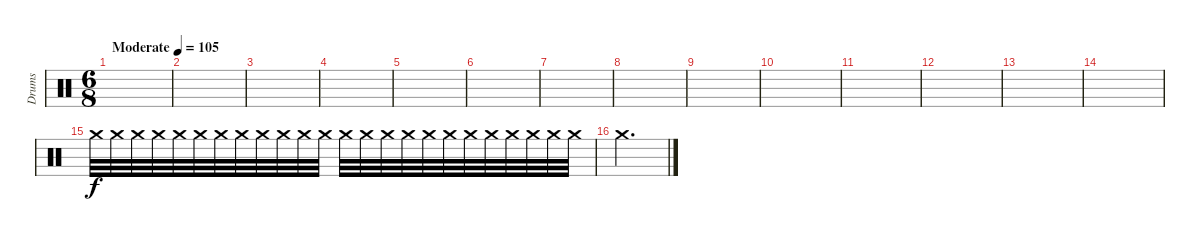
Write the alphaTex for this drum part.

\track ("Drums" "Drums") {instrument percussion}
\staff {score}
\articulation defaults
\ts (6 8)
\tempo (105 "Moderate")
\clef neutral
\ks c
|
|
|
|
|
|
|
|
|
|
|
|
|
|
"Crash medium (hit)".32{volume 13} "Crash medium (hit)".32 "Crash medium (hit)".32 "Crash medium (hit)".32 "Crash medium (hit)".32 "Crash medium (hit)".32 "Crash medium (hit)".32 "Crash medium (hit)".32 "Crash medium (hit)".32 "Crash medium (hit)".32 "Crash medium (hit)".32 "Crash medium (hit)".32 "Crash medium (hit)".32 "Crash medium (hit)".32 "Crash medium (hit)".32 "Crash medium (hit)".32 "Crash medium (hit)".32 "Crash medium (hit)".32 "Crash medium (hit)".32 "Crash medium (hit)".32 "Crash medium (hit)".32 "Crash medium (hit)".32 "Crash medium (hit)".32 "Crash medium (hit)".32 |
"Crash medium (hit)".2{d}
